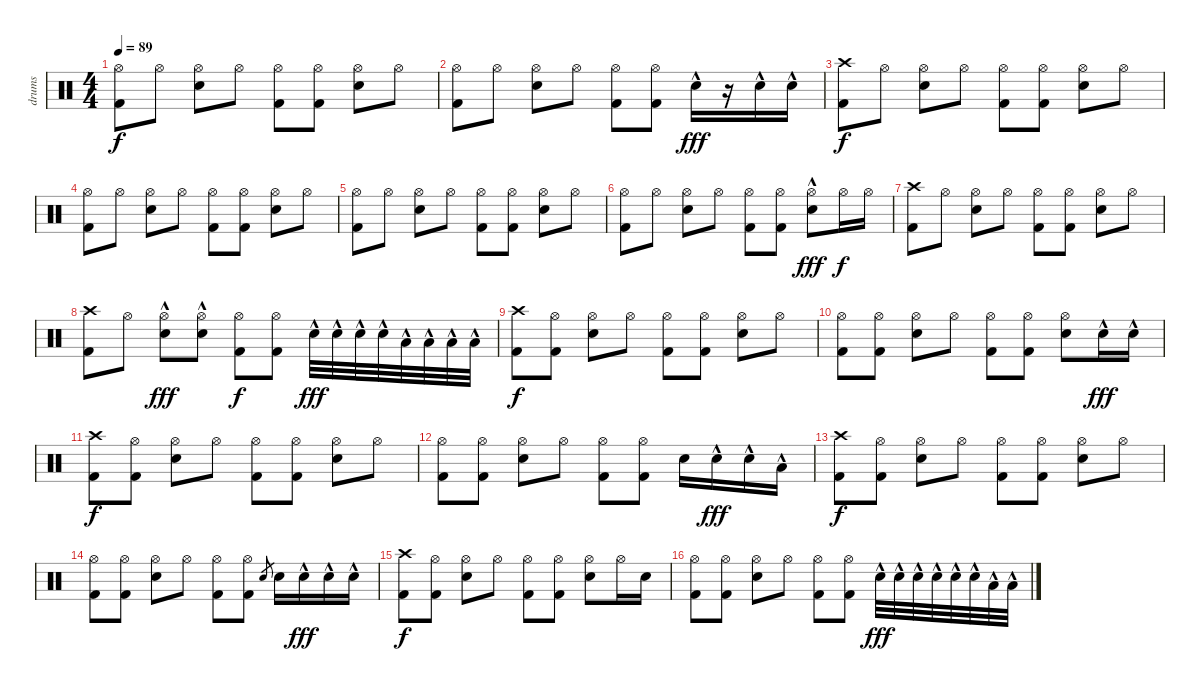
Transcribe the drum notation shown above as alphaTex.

\track ("drums" "drums") {instrument percussion}
\staff {score}
\articulation defaults
\ts (4 4)
\tempo 89
\clef neutral
\ks c
("Kick (hit) 2" "Hi-Hat (open)").8{dy f} "Hi-Hat (open)".8 ("Electric Snare (hit)" "Hi-Hat (open)").8 "Hi-Hat (open)".8 ("Kick (hit) 2" "Hi-Hat (open)").8 ("Kick (hit) 2" "Hi-Hat (open)").8 ("Electric Snare (hit)" "Hi-Hat (open)").8 "Hi-Hat (open)".8 |
("Kick (hit) 2" "Hi-Hat (open)").8 "Hi-Hat (open)".8 ("Electric Snare (hit)" "Hi-Hat (open)").8 "Hi-Hat (open)".8 ("Kick (hit) 2" "Hi-Hat (open)").8 ("Kick (hit) 2" "Hi-Hat (open)").8 "Electric Snare (hit)"{hac}.16{dy fff} r.16 "Electric Snare (hit)"{hac}.16 "Electric Snare (hit)"{hac}.16 |
("Crash high (hit)" "Kick (hit) 2").8{dy f} "Hi-Hat (open)".8 ("Electric Snare (hit)" "Hi-Hat (open)").8 "Hi-Hat (open)".8 ("Kick (hit) 2" "Hi-Hat (open)").8 ("Kick (hit) 2" "Hi-Hat (open)").8 ("Electric Snare (hit)" "Hi-Hat (open)").8 "Hi-Hat (open)".8 |
("Kick (hit) 2" "Hi-Hat (open)").8 "Hi-Hat (open)".8 ("Electric Snare (hit)" "Hi-Hat (open)").8 "Hi-Hat (open)".8 ("Kick (hit) 2" "Hi-Hat (open)").8 ("Kick (hit) 2" "Hi-Hat (open)").8 ("Electric Snare (hit)" "Hi-Hat (open)").8 "Hi-Hat (open)".8 |
("Kick (hit) 2" "Hi-Hat (open)").8 "Hi-Hat (open)".8 ("Electric Snare (hit)" "Hi-Hat (open)").8 "Hi-Hat (open)".8 ("Kick (hit) 2" "Hi-Hat (open)").8 ("Kick (hit) 2" "Hi-Hat (open)").8 ("Electric Snare (hit)" "Hi-Hat (open)").8 "Hi-Hat (open)".8 |
("Kick (hit) 2" "Hi-Hat (open)").8 "Hi-Hat (open)".8 ("Electric Snare (hit)" "Hi-Hat (open)").8 "Hi-Hat (open)".8 ("Kick (hit) 2" "Hi-Hat (open)").8 ("Kick (hit) 2" "Hi-Hat (open)").8 ("Electric Snare (hit)"{hac} "Hi-Hat (open)").8{dy fff} "Hi-Hat (open)".16{dy f} "Hi-Hat (open)".16 |
("Crash high (hit)" "Kick (hit) 2").8 "Hi-Hat (open)".8 ("Electric Snare (hit)" "Hi-Hat (open)").8 "Hi-Hat (open)".8 ("Kick (hit) 2" "Hi-Hat (open)").8 ("Kick (hit) 2" "Hi-Hat (open)").8 ("Electric Snare (hit)" "Hi-Hat (open)").8 "Hi-Hat (open)".8 |
("Crash high (hit)" "Kick (hit) 2").8 "Hi-Hat (open)".8 ("Electric Snare (hit)"{hac} "Hi-Hat (open)").8{dy fff} ("Electric Snare (hit)"{hac} "Hi-Hat (open)").8 ("Kick (hit) 2" "Hi-Hat (open)").8{dy f} ("Kick (hit) 2" "Hi-Hat (open)").8 "Electric Snare (hit)"{hac}.32{dy fff} "Electric Snare (hit)"{hac}.32 "Electric Snare (hit)"{hac}.32 "Electric Snare (hit)"{hac}.32 "Low Floor Tom (hit)"{hac}.32 "Low Floor Tom (hit)"{hac}.32 "Low Floor Tom (hit)"{hac}.32 "Low Floor Tom (hit)"{hac}.32 |
("Crash high (hit)" "Kick (hit) 2").8{dy f} ("Hi-Hat (open)" "Kick (hit) 2").8 ("Hi-Hat (open)" "Electric Snare (hit)").8 "Hi-Hat (open)".8 ("Hi-Hat (open)" "Kick (hit) 2").8 ("Hi-Hat (open)" "Kick (hit) 2").8 ("Hi-Hat (open)" "Electric Snare (hit)").8 "Hi-Hat (open)".8 |
("Hi-Hat (open)" "Kick (hit) 2").8 ("Hi-Hat (open)" "Kick (hit) 2").8 ("Hi-Hat (open)" "Electric Snare (hit)").8 "Hi-Hat (open)".8 ("Hi-Hat (open)" "Kick (hit) 2").8 ("Hi-Hat (open)" "Kick (hit) 2").8 ("Hi-Hat (open)" "Electric Snare (hit)").8 "Electric Snare (hit)"{hac}.16{dy fff} "Electric Snare (hit)"{hac}.16 |
("Crash high (hit)" "Kick (hit) 2").8{dy f} ("Hi-Hat (open)" "Kick (hit) 2").8 ("Hi-Hat (open)" "Electric Snare (hit)").8 "Hi-Hat (open)".8 ("Hi-Hat (open)" "Kick (hit) 2").8 ("Hi-Hat (open)" "Kick (hit) 2").8 ("Hi-Hat (open)" "Electric Snare (hit)").8 "Hi-Hat (open)".8 |
("Hi-Hat (open)" "Kick (hit) 2").8 ("Hi-Hat (open)" "Kick (hit) 2").8 ("Hi-Hat (open)" "Electric Snare (hit)").8 "Hi-Hat (open)".8 ("Hi-Hat (open)" "Kick (hit) 2").8 ("Hi-Hat (open)" "Kick (hit) 2").8 "Electric Snare (hit)".16 "Electric Snare (hit)"{hac}.16{dy fff} "Electric Snare (hit)"{hac}.16 "Low Floor Tom (hit)"{hac}.16 |
("Crash high (hit)" "Kick (hit) 2").8{dy f} ("Hi-Hat (open)" "Kick (hit) 2").8 ("Hi-Hat (open)" "Electric Snare (hit)").8 "Hi-Hat (open)".8 ("Hi-Hat (open)" "Kick (hit) 2").8 ("Hi-Hat (open)" "Kick (hit) 2").8 ("Hi-Hat (open)" "Electric Snare (hit)").8 "Hi-Hat (open)".8 |
("Hi-Hat (open)" "Kick (hit) 2").8 ("Hi-Hat (open)" "Kick (hit) 2").8 ("Hi-Hat (open)" "Electric Snare (hit)").8 "Hi-Hat (open)".8 ("Hi-Hat (open)" "Kick (hit) 2").8 ("Hi-Hat (open)" "Kick (hit) 2").8 "Electric Snare (hit)".8{gr} "Electric Snare (hit)".16 "Electric Snare (hit)"{hac}.16{dy fff} "Electric Snare (hit)"{hac}.16 "Electric Snare (hit)"{hac}.16 |
("Crash high (hit)" "Kick (hit) 2").8{dy f} ("Hi-Hat (open)" "Kick (hit) 2").8 ("Hi-Hat (open)" "Electric Snare (hit)").8 "Hi-Hat (open)".8 ("Hi-Hat (open)" "Kick (hit) 2").8 ("Hi-Hat (open)" "Kick (hit) 2").8 ("Hi-Hat (open)" "Electric Snare (hit)").8 "Hi-Hat (open)".16 "Electric Snare (hit)".16 |
("Hi-Hat (open)" "Kick (hit) 2").8 ("Hi-Hat (open)" "Kick (hit) 2").8 ("Hi-Hat (open)" "Electric Snare (hit)").8 "Hi-Hat (open)".8 ("Hi-Hat (open)" "Kick (hit) 2").8 ("Hi-Hat (open)" "Kick (hit) 2").8 "Electric Snare (hit)"{hac}.32{dy fff} "Electric Snare (hit)"{hac}.32 "Electric Snare (hit)"{hac}.32 "Electric Snare (hit)"{hac}.32 "Electric Snare (hit)"{hac}.32 "Electric Snare (hit)"{hac}.32 "Low Floor Tom (hit)"{hac}.32 "Low Floor Tom (hit)"{hac}.32
